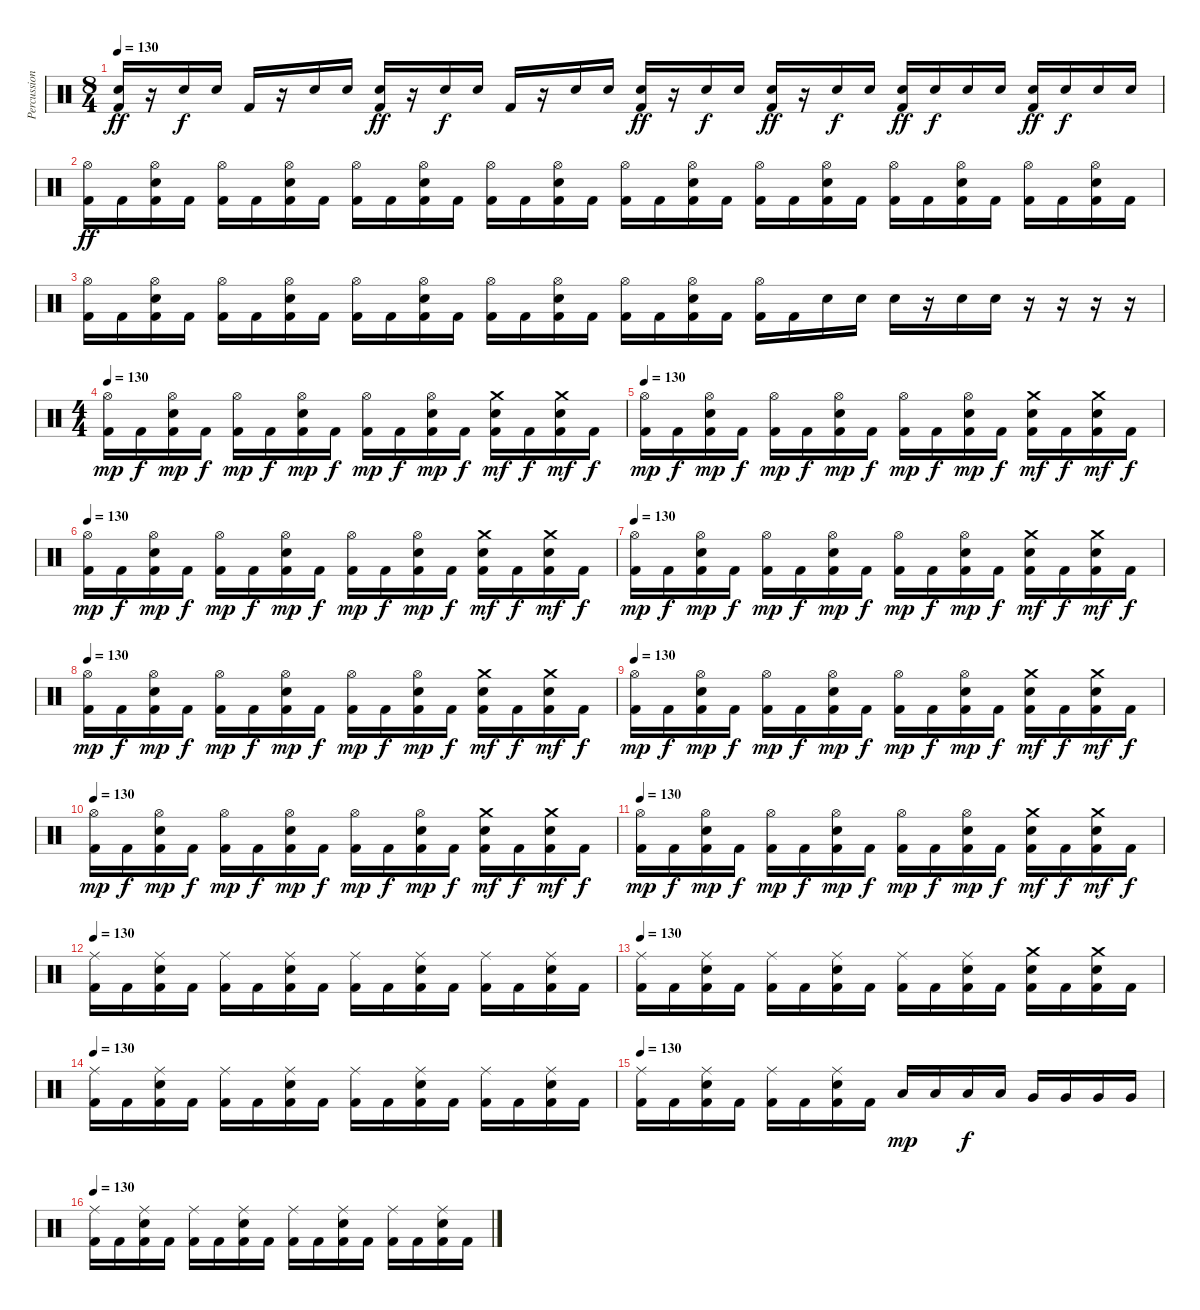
\track ("Percussion" "Percussion") {instrument percussion}
\staff {score}
\articulation defaults
\ts (8 4)
\tempo 130
\clef neutral
\ks c
("Snare (hit) 2" "Kick (hit) 2").16{dy ff} r.16 "Snare (hit) 2".16{dy f} "Snare (hit) 2".16 "Kick (hit) 2".16 r.16 "Snare (hit) 2".16 "Snare (hit) 2".16 ("Snare (hit) 2" "Kick (hit) 2").16{dy ff} r.16 "Snare (hit) 2".16{dy f} "Snare (hit) 2".16 "Kick (hit) 2".16 r.16 "Snare (hit) 2".16 "Snare (hit) 2".16 ("Snare (hit) 2" "Kick (hit) 2").16{dy ff} r.16 "Snare (hit) 2".16{dy f} "Snare (hit) 2".16 ("Snare (hit) 2" "Kick (hit) 2").16{dy ff} r.16 "Snare (hit) 2".16{dy f} "Snare (hit) 2".16 ("Snare (hit) 2" "Kick (hit) 2").16{dy ff} "Snare (hit) 2".16{dy f} "Snare (hit) 2".16 "Snare (hit) 2".16 ("Snare (hit) 2" "Kick (hit) 2").16{dy ff} "Snare (hit) 2".16{dy f} "Snare (hit) 2".16 "Snare (hit) 2".16 |
("Hi-Hat (open)" "Kick (hit) 2").16{dy ff} "Kick (hit) 2".16 ("Hi-Hat (open)" "Snare (hit) 2" "Kick (hit) 2").16 "Kick (hit) 2".16 ("Hi-Hat (open)" "Kick (hit) 2").16 "Kick (hit) 2".16 ("Hi-Hat (open)" "Snare (hit) 2" "Kick (hit) 2").16 "Kick (hit) 2".16 ("Hi-Hat (open)" "Kick (hit) 2").16 "Kick (hit) 2".16 ("Hi-Hat (open)" "Snare (hit) 2" "Kick (hit) 2").16 "Kick (hit) 2".16 ("Hi-Hat (open)" "Kick (hit) 2").16 "Kick (hit) 2".16 ("Hi-Hat (open)" "Snare (hit) 2" "Kick (hit) 2").16 "Kick (hit) 2".16 ("Hi-Hat (open)" "Kick (hit) 2").16 "Kick (hit) 2".16 ("Hi-Hat (open)" "Snare (hit) 2" "Kick (hit) 2").16 "Kick (hit) 2".16 ("Hi-Hat (open)" "Kick (hit) 2").16 "Kick (hit) 2".16 ("Hi-Hat (open)" "Snare (hit) 2" "Kick (hit) 2").16 "Kick (hit) 2".16 ("Hi-Hat (open)" "Kick (hit) 2").16 "Kick (hit) 2".16 ("Hi-Hat (open)" "Snare (hit) 2" "Kick (hit) 2").16 "Kick (hit) 2".16 ("Hi-Hat (open)" "Kick (hit) 2").16 "Kick (hit) 2".16 ("Hi-Hat (open)" "Snare (hit) 2" "Kick (hit) 2").16 "Kick (hit) 2".16 |
("Hi-Hat (open)" "Kick (hit) 2").16 "Kick (hit) 2".16 ("Hi-Hat (open)" "Snare (hit) 2" "Kick (hit) 2").16 "Kick (hit) 2".16 ("Hi-Hat (open)" "Kick (hit) 2").16 "Kick (hit) 2".16 ("Hi-Hat (open)" "Snare (hit) 2" "Kick (hit) 2").16 "Kick (hit) 2".16 ("Hi-Hat (open)" "Kick (hit) 2").16 "Kick (hit) 2".16 ("Hi-Hat (open)" "Snare (hit) 2" "Kick (hit) 2").16 "Kick (hit) 2".16 ("Hi-Hat (open)" "Kick (hit) 2").16 "Kick (hit) 2".16 ("Hi-Hat (open)" "Snare (hit) 2" "Kick (hit) 2").16 "Kick (hit) 2".16 ("Hi-Hat (open)" "Kick (hit) 2").16 "Kick (hit) 2".16 ("Hi-Hat (open)" "Snare (hit) 2" "Kick (hit) 2").16 "Kick (hit) 2".16 ("Hi-Hat (open)" "Kick (hit) 2").16 "Kick (hit) 2".16 "Snare (hit) 2".16 "Snare (hit) 2".16 "Snare (hit) 2".16 r.16 "Snare (hit) 2".16 "Snare (hit) 2".16 r.16 r.16 r.16 r.16 |
\ts (4 4)
\tempo 130
("Hi-Hat (open)" "Kick (hit) 2").16{dy mp} "Kick (hit) 2".16{dy f} ("Hi-Hat (open)" "Snare (hit) 2" "Kick (hit) 2").16{dy mp} "Kick (hit) 2".16{dy f} ("Hi-Hat (open)" "Kick (hit) 2").16{dy mp} "Kick (hit) 2".16{dy f} ("Hi-Hat (open)" "Snare (hit) 2" "Kick (hit) 2").16{dy mp} "Kick (hit) 2".16{dy f} ("Hi-Hat (open)" "Kick (hit) 2").16{dy mp} "Kick (hit) 2".16{dy f} ("Hi-Hat (open)" "Snare (hit) 2" "Kick (hit) 2").16{dy mp} "Kick (hit) 2".16{dy f} ("Crash medium (hit)" "Snare (hit) 2" "Kick (hit) 2").16{dy mf} "Kick (hit) 2".16{dy f} ("Crash medium (hit)" "Snare (hit) 2" "Kick (hit) 2").16{dy mf} "Kick (hit) 2".16{dy f} |
\tempo 130
("Hi-Hat (open)" "Kick (hit) 2").16{dy mp} "Kick (hit) 2".16{dy f} ("Hi-Hat (open)" "Snare (hit) 2" "Kick (hit) 2").16{dy mp} "Kick (hit) 2".16{dy f} ("Hi-Hat (open)" "Kick (hit) 2").16{dy mp} "Kick (hit) 2".16{dy f} ("Hi-Hat (open)" "Snare (hit) 2" "Kick (hit) 2").16{dy mp} "Kick (hit) 2".16{dy f} ("Hi-Hat (open)" "Kick (hit) 2").16{dy mp} "Kick (hit) 2".16{dy f} ("Hi-Hat (open)" "Snare (hit) 2" "Kick (hit) 2").16{dy mp} "Kick (hit) 2".16{dy f} ("Crash medium (hit)" "Snare (hit) 2" "Kick (hit) 2").16{dy mf} "Kick (hit) 2".16{dy f} ("Crash medium (hit)" "Snare (hit) 2" "Kick (hit) 2").16{dy mf} "Kick (hit) 2".16{dy f} |
\tempo 130
("Hi-Hat (open)" "Kick (hit) 2").16{dy mp} "Kick (hit) 2".16{dy f} ("Hi-Hat (open)" "Snare (hit) 2" "Kick (hit) 2").16{dy mp} "Kick (hit) 2".16{dy f} ("Hi-Hat (open)" "Kick (hit) 2").16{dy mp} "Kick (hit) 2".16{dy f} ("Hi-Hat (open)" "Snare (hit) 2" "Kick (hit) 2").16{dy mp} "Kick (hit) 2".16{dy f} ("Hi-Hat (open)" "Kick (hit) 2").16{dy mp} "Kick (hit) 2".16{dy f} ("Hi-Hat (open)" "Snare (hit) 2" "Kick (hit) 2").16{dy mp} "Kick (hit) 2".16{dy f} ("Crash medium (hit)" "Snare (hit) 2" "Kick (hit) 2").16{dy mf} "Kick (hit) 2".16{dy f} ("Crash medium (hit)" "Snare (hit) 2" "Kick (hit) 2").16{dy mf} "Kick (hit) 2".16{dy f} |
\tempo 130
("Hi-Hat (open)" "Kick (hit) 2").16{dy mp} "Kick (hit) 2".16{dy f} ("Hi-Hat (open)" "Snare (hit) 2" "Kick (hit) 2").16{dy mp} "Kick (hit) 2".16{dy f} ("Hi-Hat (open)" "Kick (hit) 2").16{dy mp} "Kick (hit) 2".16{dy f} ("Hi-Hat (open)" "Snare (hit) 2" "Kick (hit) 2").16{dy mp} "Kick (hit) 2".16{dy f} ("Hi-Hat (open)" "Kick (hit) 2").16{dy mp} "Kick (hit) 2".16{dy f} ("Hi-Hat (open)" "Snare (hit) 2" "Kick (hit) 2").16{dy mp} "Kick (hit) 2".16{dy f} ("Crash medium (hit)" "Snare (hit) 2" "Kick (hit) 2").16{dy mf} "Kick (hit) 2".16{dy f} ("Crash medium (hit)" "Snare (hit) 2" "Kick (hit) 2").16{dy mf} "Kick (hit) 2".16{dy f} |
\tempo 130
("Hi-Hat (open)" "Kick (hit) 2").16{dy mp} "Kick (hit) 2".16{dy f} ("Hi-Hat (open)" "Snare (hit) 2" "Kick (hit) 2").16{dy mp} "Kick (hit) 2".16{dy f} ("Hi-Hat (open)" "Kick (hit) 2").16{dy mp} "Kick (hit) 2".16{dy f} ("Hi-Hat (open)" "Snare (hit) 2" "Kick (hit) 2").16{dy mp} "Kick (hit) 2".16{dy f} ("Hi-Hat (open)" "Kick (hit) 2").16{dy mp} "Kick (hit) 2".16{dy f} ("Hi-Hat (open)" "Snare (hit) 2" "Kick (hit) 2").16{dy mp} "Kick (hit) 2".16{dy f} ("Crash medium (hit)" "Snare (hit) 2" "Kick (hit) 2").16{dy mf} "Kick (hit) 2".16{dy f} ("Crash medium (hit)" "Snare (hit) 2" "Kick (hit) 2").16{dy mf} "Kick (hit) 2".16{dy f} |
\tempo 130
("Hi-Hat (open)" "Kick (hit) 2").16{dy mp} "Kick (hit) 2".16{dy f} ("Hi-Hat (open)" "Snare (hit) 2" "Kick (hit) 2").16{dy mp} "Kick (hit) 2".16{dy f} ("Hi-Hat (open)" "Kick (hit) 2").16{dy mp} "Kick (hit) 2".16{dy f} ("Hi-Hat (open)" "Snare (hit) 2" "Kick (hit) 2").16{dy mp} "Kick (hit) 2".16{dy f} ("Hi-Hat (open)" "Kick (hit) 2").16{dy mp} "Kick (hit) 2".16{dy f} ("Hi-Hat (open)" "Snare (hit) 2" "Kick (hit) 2").16{dy mp} "Kick (hit) 2".16{dy f} ("Crash medium (hit)" "Snare (hit) 2" "Kick (hit) 2").16{dy mf} "Kick (hit) 2".16{dy f} ("Crash medium (hit)" "Snare (hit) 2" "Kick (hit) 2").16{dy mf} "Kick (hit) 2".16{dy f} |
\tempo 130
("Hi-Hat (open)" "Kick (hit) 2").16{dy mp} "Kick (hit) 2".16{dy f} ("Hi-Hat (open)" "Snare (hit) 2" "Kick (hit) 2").16{dy mp} "Kick (hit) 2".16{dy f} ("Hi-Hat (open)" "Kick (hit) 2").16{dy mp} "Kick (hit) 2".16{dy f} ("Hi-Hat (open)" "Snare (hit) 2" "Kick (hit) 2").16{dy mp} "Kick (hit) 2".16{dy f} ("Hi-Hat (open)" "Kick (hit) 2").16{dy mp} "Kick (hit) 2".16{dy f} ("Hi-Hat (open)" "Snare (hit) 2" "Kick (hit) 2").16{dy mp} "Kick (hit) 2".16{dy f} ("Crash medium (hit)" "Snare (hit) 2" "Kick (hit) 2").16{dy mf} "Kick (hit) 2".16{dy f} ("Crash medium (hit)" "Snare (hit) 2" "Kick (hit) 2").16{dy mf} "Kick (hit) 2".16{dy f} |
\tempo 130
("Hi-Hat (open)" "Kick (hit) 2").16{dy mp} "Kick (hit) 2".16{dy f} ("Hi-Hat (open)" "Snare (hit) 2" "Kick (hit) 2").16{dy mp} "Kick (hit) 2".16{dy f} ("Hi-Hat (open)" "Kick (hit) 2").16{dy mp} "Kick (hit) 2".16{dy f} ("Hi-Hat (open)" "Snare (hit) 2" "Kick (hit) 2").16{dy mp} "Kick (hit) 2".16{dy f} ("Hi-Hat (open)" "Kick (hit) 2").16{dy mp} "Kick (hit) 2".16{dy f} ("Hi-Hat (open)" "Snare (hit) 2" "Kick (hit) 2").16{dy mp} "Kick (hit) 2".16{dy f} ("Crash medium (hit)" "Snare (hit) 2" "Kick (hit) 2").16{dy mf} "Kick (hit) 2".16{dy f} ("Crash medium (hit)" "Snare (hit) 2" "Kick (hit) 2").16{dy mf} "Kick (hit) 2".16{dy f} |
\tempo 130
("Ride (middle)" "Kick (hit) 2").16 "Kick (hit) 2".16 ("Ride (middle)" "Snare (hit) 2" "Kick (hit) 2").16 "Kick (hit) 2".16 ("Ride (middle)" "Kick (hit) 2").16 "Kick (hit) 2".16 ("Ride (middle)" "Snare (hit) 2" "Kick (hit) 2").16 "Kick (hit) 2".16 ("Ride (middle)" "Kick (hit) 2").16 "Kick (hit) 2".16 ("Ride (middle)" "Snare (hit) 2" "Kick (hit) 2").16 "Kick (hit) 2".16 ("Ride (middle)" "Kick (hit) 2").16 "Kick (hit) 2".16 ("Ride (middle)" "Snare (hit) 2" "Kick (hit) 2").16 "Kick (hit) 2".16 |
\tempo 130
("Ride (middle)" "Kick (hit) 2").16 "Kick (hit) 2".16 ("Ride (middle)" "Snare (hit) 2" "Kick (hit) 2").16 "Kick (hit) 2".16 ("Ride (middle)" "Kick (hit) 2").16 "Kick (hit) 2".16 ("Ride (middle)" "Snare (hit) 2" "Kick (hit) 2").16 "Kick (hit) 2".16 ("Ride (middle)" "Kick (hit) 2").16 "Kick (hit) 2".16 ("Ride (middle)" "Snare (hit) 2" "Kick (hit) 2").16 "Kick (hit) 2".16 ("Crash medium (hit)" "Snare (hit) 2" "Kick (hit) 2").16 "Kick (hit) 2".16 ("Crash medium (hit)" "Snare (hit) 2" "Kick (hit) 2").16 "Kick (hit) 2".16 |
\tempo 130
("Ride (middle)" "Kick (hit) 2").16 "Kick (hit) 2".16 ("Ride (middle)" "Snare (hit) 2" "Kick (hit) 2").16 "Kick (hit) 2".16 ("Ride (middle)" "Kick (hit) 2").16 "Kick (hit) 2".16 ("Ride (middle)" "Snare (hit) 2" "Kick (hit) 2").16 "Kick (hit) 2".16 ("Ride (middle)" "Kick (hit) 2").16 "Kick (hit) 2".16 ("Ride (middle)" "Snare (hit) 2" "Kick (hit) 2").16 "Kick (hit) 2".16 ("Ride (middle)" "Kick (hit) 2").16 "Kick (hit) 2".16 ("Ride (middle)" "Snare (hit) 2" "Kick (hit) 2").16 "Kick (hit) 2".16 |
\tempo 130
("Ride (middle)" "Kick (hit) 2").16 "Kick (hit) 2".16 ("Ride (middle)" "Snare (hit) 2" "Kick (hit) 2").16 "Kick (hit) 2".16 ("Ride (middle)" "Kick (hit) 2").16 "Kick (hit) 2".16 ("Ride (middle)" "Snare (hit) 2" "Kick (hit) 2").16 "Kick (hit) 2".16 "Low Tom (hit)".16{dy mp} "Low Tom (hit)".16 "Low Tom (hit)".16{dy f} "Low Tom (hit)".16 "Very Low Tom (hit)".16 "Very Low Tom (hit)".16 "Very Low Tom (hit)".16 "Very Low Tom (hit)".16 |
\tempo 130
("Ride (middle)" "Kick (hit) 2").16 "Kick (hit) 2".16 ("Ride (middle)" "Snare (hit) 2" "Kick (hit) 2").16 "Kick (hit) 2".16 ("Ride (middle)" "Kick (hit) 2").16 "Kick (hit) 2".16 ("Ride (middle)" "Snare (hit) 2" "Kick (hit) 2").16 "Kick (hit) 2".16 ("Ride (middle)" "Kick (hit) 2").16 "Kick (hit) 2".16 ("Ride (middle)" "Snare (hit) 2" "Kick (hit) 2").16 "Kick (hit) 2".16 ("Ride (middle)" "Kick (hit) 2").16 "Kick (hit) 2".16 ("Ride (middle)" "Snare (hit) 2" "Kick (hit) 2").16 "Kick (hit) 2".16
